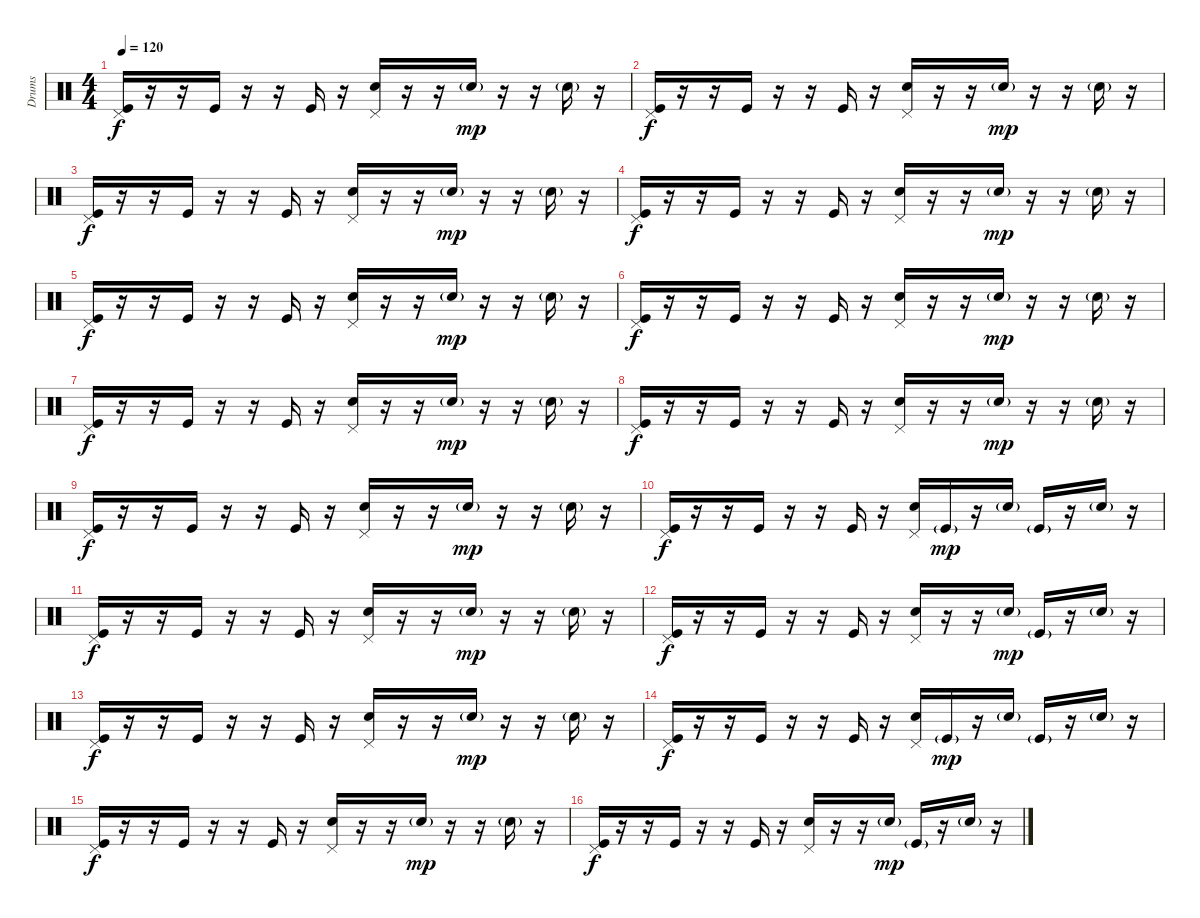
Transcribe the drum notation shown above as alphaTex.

\track ("Drums" "Drums") {instrument percussion}
\staff {score}
\articulation defaults
\ts (4 4)
\tempo 120
\clef neutral
\ks c
("Pedal Hi-Hat (hit)" "Kick (hit)").16{dy f} r.16 r.16 "Kick (hit)".16 r.16 r.16 "Kick (hit)".16 r.16 ("Pedal Hi-Hat (hit)" "Electric Snare (hit)").16 r.16 r.16 "Electric Snare (hit)"{g}.16{dy mp} r.16 r.16 "Electric Snare (hit)"{g}.16 r.16 |
("Pedal Hi-Hat (hit)" "Kick (hit)").16{dy f} r.16 r.16 "Kick (hit)".16 r.16 r.16 "Kick (hit)".16 r.16 ("Pedal Hi-Hat (hit)" "Electric Snare (hit)").16 r.16 r.16 "Electric Snare (hit)"{g}.16{dy mp} r.16 r.16 "Electric Snare (hit)"{g}.16 r.16 |
("Pedal Hi-Hat (hit)" "Kick (hit)").16{dy f} r.16 r.16 "Kick (hit)".16 r.16 r.16 "Kick (hit)".16 r.16 ("Pedal Hi-Hat (hit)" "Electric Snare (hit)").16 r.16 r.16 "Electric Snare (hit)"{g}.16{dy mp} r.16 r.16 "Electric Snare (hit)"{g}.16 r.16 |
("Pedal Hi-Hat (hit)" "Kick (hit)").16{dy f} r.16 r.16 "Kick (hit)".16 r.16 r.16 "Kick (hit)".16 r.16 ("Pedal Hi-Hat (hit)" "Electric Snare (hit)").16 r.16 r.16 "Electric Snare (hit)"{g}.16{dy mp} r.16 r.16 "Electric Snare (hit)"{g}.16 r.16 |
("Pedal Hi-Hat (hit)" "Kick (hit)").16{dy f} r.16 r.16 "Kick (hit)".16 r.16 r.16 "Kick (hit)".16 r.16 ("Pedal Hi-Hat (hit)" "Electric Snare (hit)").16 r.16 r.16 "Electric Snare (hit)"{g}.16{dy mp} r.16 r.16 "Electric Snare (hit)"{g}.16 r.16 |
("Pedal Hi-Hat (hit)" "Kick (hit)").16{dy f} r.16 r.16 "Kick (hit)".16 r.16 r.16 "Kick (hit)".16 r.16 ("Pedal Hi-Hat (hit)" "Electric Snare (hit)").16 r.16 r.16 "Electric Snare (hit)"{g}.16{dy mp} r.16 r.16 "Electric Snare (hit)"{g}.16 r.16 |
("Pedal Hi-Hat (hit)" "Kick (hit)").16{dy f} r.16 r.16 "Kick (hit)".16 r.16 r.16 "Kick (hit)".16 r.16 ("Pedal Hi-Hat (hit)" "Electric Snare (hit)").16 r.16 r.16 "Electric Snare (hit)"{g}.16{dy mp} r.16 r.16 "Electric Snare (hit)"{g}.16 r.16 |
("Pedal Hi-Hat (hit)" "Kick (hit)").16{dy f} r.16 r.16 "Kick (hit)".16 r.16 r.16 "Kick (hit)".16 r.16 ("Pedal Hi-Hat (hit)" "Electric Snare (hit)").16 r.16 r.16 "Electric Snare (hit)"{g}.16{dy mp} r.16 r.16 "Electric Snare (hit)"{g}.16 r.16 |
("Pedal Hi-Hat (hit)" "Kick (hit)").16{dy f} r.16 r.16 "Kick (hit)".16 r.16 r.16 "Kick (hit)".16 r.16 ("Pedal Hi-Hat (hit)" "Electric Snare (hit)").16 r.16 r.16 "Electric Snare (hit)"{g}.16{dy mp} r.16 r.16 "Electric Snare (hit)"{g}.16 r.16 |
("Pedal Hi-Hat (hit)" "Kick (hit)").16{dy f} r.16 r.16 "Kick (hit)".16 r.16 r.16 "Kick (hit)".16 r.16 ("Pedal Hi-Hat (hit)" "Electric Snare (hit)").16 "Kick (hit)"{g}.16{dy mp} r.16 "Electric Snare (hit)"{g}.16 "Kick (hit)"{g}.16 r.16 "Electric Snare (hit)"{g}.16 r.16 |
("Pedal Hi-Hat (hit)" "Kick (hit)").16{dy f} r.16 r.16 "Kick (hit)".16 r.16 r.16 "Kick (hit)".16 r.16 ("Pedal Hi-Hat (hit)" "Electric Snare (hit)").16 r.16 r.16 "Electric Snare (hit)"{g}.16{dy mp} r.16 r.16 "Electric Snare (hit)"{g}.16 r.16 |
("Pedal Hi-Hat (hit)" "Kick (hit)").16{dy f} r.16 r.16 "Kick (hit)".16 r.16 r.16 "Kick (hit)".16 r.16 ("Pedal Hi-Hat (hit)" "Electric Snare (hit)").16 r.16 r.16 "Electric Snare (hit)"{g}.16{dy mp} "Kick (hit)"{g}.16 r.16 "Electric Snare (hit)"{g}.16 r.16 |
("Pedal Hi-Hat (hit)" "Kick (hit)").16{dy f} r.16 r.16 "Kick (hit)".16 r.16 r.16 "Kick (hit)".16 r.16 ("Pedal Hi-Hat (hit)" "Electric Snare (hit)").16 r.16 r.16 "Electric Snare (hit)"{g}.16{dy mp} r.16 r.16 "Electric Snare (hit)"{g}.16 r.16 |
("Pedal Hi-Hat (hit)" "Kick (hit)").16{dy f} r.16 r.16 "Kick (hit)".16 r.16 r.16 "Kick (hit)".16 r.16 ("Pedal Hi-Hat (hit)" "Electric Snare (hit)").16 "Kick (hit)"{g}.16{dy mp} r.16 "Electric Snare (hit)"{g}.16 "Kick (hit)"{g}.16 r.16 "Electric Snare (hit)"{g}.16 r.16 |
("Pedal Hi-Hat (hit)" "Kick (hit)").16{dy f} r.16 r.16 "Kick (hit)".16 r.16 r.16 "Kick (hit)".16 r.16 ("Pedal Hi-Hat (hit)" "Electric Snare (hit)").16 r.16 r.16 "Electric Snare (hit)"{g}.16{dy mp} r.16 r.16 "Electric Snare (hit)"{g}.16 r.16 |
("Pedal Hi-Hat (hit)" "Kick (hit)").16{dy f} r.16 r.16 "Kick (hit)".16 r.16 r.16 "Kick (hit)".16 r.16 ("Pedal Hi-Hat (hit)" "Electric Snare (hit)").16 r.16 r.16 "Electric Snare (hit)"{g}.16{dy mp} "Kick (hit)"{g}.16 r.16 "Electric Snare (hit)"{g}.16 r.16
